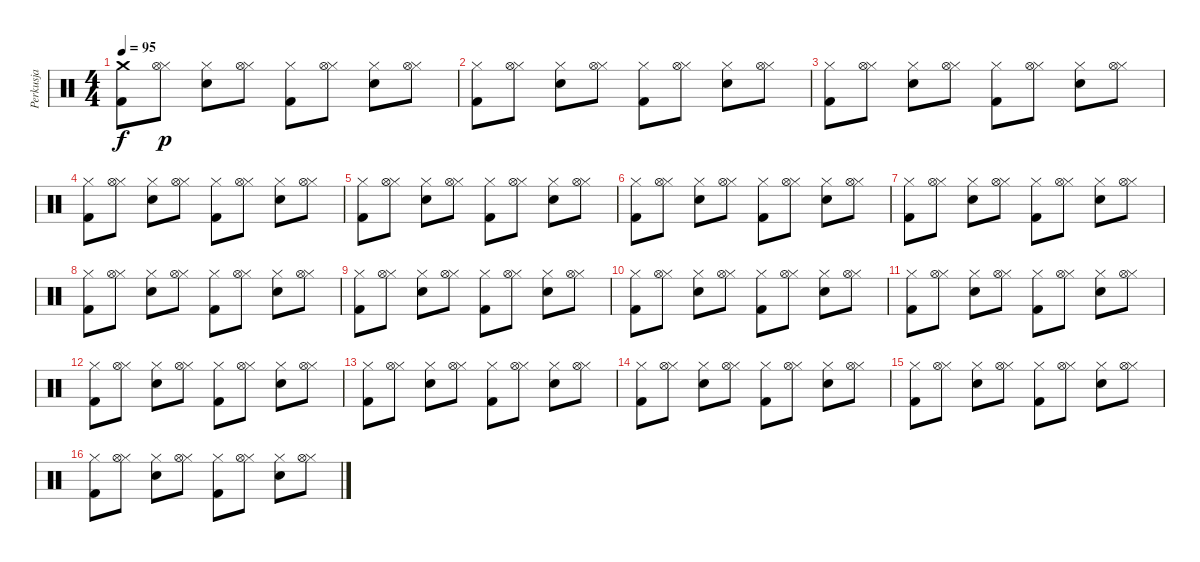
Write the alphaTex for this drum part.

\track ("Perkusja" "Perkusja") {instrument percussion}
\staff {score}
\articulation defaults
\ts (4 4)
\tempo 95
\clef neutral
\ks c
("Kick (hit) 2" "Crash medium (hit)").8{dy f} ("Hi-Hat (closed)" "Hi-Hat (open)").8{dy p} ("Electric Snare (hit)" "Hi-Hat (closed)").8 ("Hi-Hat (closed)" "Hi-Hat (open)").8 ("Kick (hit) 2" "Hi-Hat (closed)").8 ("Hi-Hat (closed)" "Hi-Hat (open)").8 ("Electric Snare (hit)" "Hi-Hat (closed)").8 ("Hi-Hat (closed)" "Hi-Hat (open)").8 |
("Kick (hit) 2" "Hi-Hat (closed)").8 ("Hi-Hat (closed)" "Hi-Hat (open)").8 ("Electric Snare (hit)" "Hi-Hat (closed)").8 ("Hi-Hat (closed)" "Hi-Hat (open)").8 ("Kick (hit) 2" "Hi-Hat (closed)").8 ("Hi-Hat (closed)" "Hi-Hat (open)").8 ("Electric Snare (hit)" "Hi-Hat (closed)").8 ("Hi-Hat (closed)" "Hi-Hat (open)").8 |
("Kick (hit) 2" "Hi-Hat (closed)").8 ("Hi-Hat (closed)" "Hi-Hat (open)").8 ("Electric Snare (hit)" "Hi-Hat (closed)").8 ("Hi-Hat (closed)" "Hi-Hat (open)").8 ("Kick (hit) 2" "Hi-Hat (closed)").8 ("Hi-Hat (closed)" "Hi-Hat (open)").8 ("Electric Snare (hit)" "Hi-Hat (closed)").8 ("Hi-Hat (closed)" "Hi-Hat (open)").8 |
("Kick (hit) 2" "Hi-Hat (closed)").8 ("Hi-Hat (closed)" "Hi-Hat (open)").8 ("Electric Snare (hit)" "Hi-Hat (closed)").8 ("Hi-Hat (closed)" "Hi-Hat (open)").8 ("Kick (hit) 2" "Hi-Hat (closed)").8 ("Hi-Hat (closed)" "Hi-Hat (open)").8 ("Electric Snare (hit)" "Hi-Hat (closed)").8 ("Hi-Hat (closed)" "Hi-Hat (open)").8 |
("Kick (hit) 2" "Hi-Hat (closed)").8 ("Hi-Hat (closed)" "Hi-Hat (open)").8 ("Electric Snare (hit)" "Hi-Hat (closed)").8 ("Hi-Hat (closed)" "Hi-Hat (open)").8 ("Kick (hit) 2" "Hi-Hat (closed)").8 ("Hi-Hat (closed)" "Hi-Hat (open)").8 ("Electric Snare (hit)" "Hi-Hat (closed)").8 ("Hi-Hat (closed)" "Hi-Hat (open)").8 |
("Kick (hit) 2" "Hi-Hat (closed)").8 ("Hi-Hat (closed)" "Hi-Hat (open)").8 ("Electric Snare (hit)" "Hi-Hat (closed)").8 ("Hi-Hat (closed)" "Hi-Hat (open)").8 ("Kick (hit) 2" "Hi-Hat (closed)").8 ("Hi-Hat (closed)" "Hi-Hat (open)").8 ("Electric Snare (hit)" "Hi-Hat (closed)").8 ("Hi-Hat (closed)" "Hi-Hat (open)").8 |
("Kick (hit) 2" "Hi-Hat (closed)").8 ("Hi-Hat (closed)" "Hi-Hat (open)").8 ("Electric Snare (hit)" "Hi-Hat (closed)").8 ("Hi-Hat (closed)" "Hi-Hat (open)").8 ("Kick (hit) 2" "Hi-Hat (closed)").8 ("Hi-Hat (closed)" "Hi-Hat (open)").8 ("Electric Snare (hit)" "Hi-Hat (closed)").8 ("Hi-Hat (closed)" "Hi-Hat (open)").8 |
("Kick (hit) 2" "Hi-Hat (closed)").8 ("Hi-Hat (closed)" "Hi-Hat (open)").8 ("Electric Snare (hit)" "Hi-Hat (closed)").8 ("Hi-Hat (closed)" "Hi-Hat (open)").8 ("Kick (hit) 2" "Hi-Hat (closed)").8 ("Hi-Hat (closed)" "Hi-Hat (open)").8 ("Electric Snare (hit)" "Hi-Hat (closed)").8 ("Hi-Hat (closed)" "Hi-Hat (open)").8 |
("Kick (hit) 2" "Hi-Hat (closed)").8 ("Hi-Hat (closed)" "Hi-Hat (open)").8 ("Electric Snare (hit)" "Hi-Hat (closed)").8 ("Hi-Hat (closed)" "Hi-Hat (open)").8 ("Kick (hit) 2" "Hi-Hat (closed)").8 ("Hi-Hat (closed)" "Hi-Hat (open)").8 ("Electric Snare (hit)" "Hi-Hat (closed)").8 ("Hi-Hat (closed)" "Hi-Hat (open)").8 |
("Kick (hit) 2" "Hi-Hat (closed)").8 ("Hi-Hat (closed)" "Hi-Hat (open)").8 ("Electric Snare (hit)" "Hi-Hat (closed)").8 ("Hi-Hat (closed)" "Hi-Hat (open)").8 ("Kick (hit) 2" "Hi-Hat (closed)").8 ("Hi-Hat (closed)" "Hi-Hat (open)").8 ("Electric Snare (hit)" "Hi-Hat (closed)").8 ("Hi-Hat (closed)" "Hi-Hat (open)").8 |
("Kick (hit) 2" "Hi-Hat (closed)").8 ("Hi-Hat (closed)" "Hi-Hat (open)").8 ("Electric Snare (hit)" "Hi-Hat (closed)").8 ("Hi-Hat (closed)" "Hi-Hat (open)").8 ("Kick (hit) 2" "Hi-Hat (closed)").8 ("Hi-Hat (closed)" "Hi-Hat (open)").8 ("Electric Snare (hit)" "Hi-Hat (closed)").8 ("Hi-Hat (closed)" "Hi-Hat (open)").8 |
("Kick (hit) 2" "Hi-Hat (closed)").8 ("Hi-Hat (closed)" "Hi-Hat (open)").8 ("Electric Snare (hit)" "Hi-Hat (closed)").8 ("Hi-Hat (closed)" "Hi-Hat (open)").8 ("Kick (hit) 2" "Hi-Hat (closed)").8 ("Hi-Hat (closed)" "Hi-Hat (open)").8 ("Electric Snare (hit)" "Hi-Hat (closed)").8 ("Hi-Hat (closed)" "Hi-Hat (open)").8 |
("Kick (hit) 2" "Hi-Hat (closed)").8 ("Hi-Hat (closed)" "Hi-Hat (open)").8 ("Electric Snare (hit)" "Hi-Hat (closed)").8 ("Hi-Hat (closed)" "Hi-Hat (open)").8 ("Kick (hit) 2" "Hi-Hat (closed)").8 ("Hi-Hat (closed)" "Hi-Hat (open)").8 ("Electric Snare (hit)" "Hi-Hat (closed)").8 ("Hi-Hat (closed)" "Hi-Hat (open)").8 |
("Kick (hit) 2" "Hi-Hat (closed)").8 ("Hi-Hat (closed)" "Hi-Hat (open)").8 ("Electric Snare (hit)" "Hi-Hat (closed)").8 ("Hi-Hat (closed)" "Hi-Hat (open)").8 ("Kick (hit) 2" "Hi-Hat (closed)").8 ("Hi-Hat (closed)" "Hi-Hat (open)").8 ("Electric Snare (hit)" "Hi-Hat (closed)").8 ("Hi-Hat (closed)" "Hi-Hat (open)").8 |
("Kick (hit) 2" "Hi-Hat (closed)").8 ("Hi-Hat (closed)" "Hi-Hat (open)").8 ("Electric Snare (hit)" "Hi-Hat (closed)").8 ("Hi-Hat (closed)" "Hi-Hat (open)").8 ("Kick (hit) 2" "Hi-Hat (closed)").8 ("Hi-Hat (closed)" "Hi-Hat (open)").8 ("Electric Snare (hit)" "Hi-Hat (closed)").8 ("Hi-Hat (closed)" "Hi-Hat (open)").8 |
("Kick (hit) 2" "Hi-Hat (closed)").8 ("Hi-Hat (closed)" "Hi-Hat (open)").8 ("Electric Snare (hit)" "Hi-Hat (closed)").8 ("Hi-Hat (closed)" "Hi-Hat (open)").8 ("Kick (hit) 2" "Hi-Hat (closed)").8 ("Hi-Hat (closed)" "Hi-Hat (open)").8 ("Electric Snare (hit)" "Hi-Hat (closed)").8 ("Hi-Hat (closed)" "Hi-Hat (open)").8
